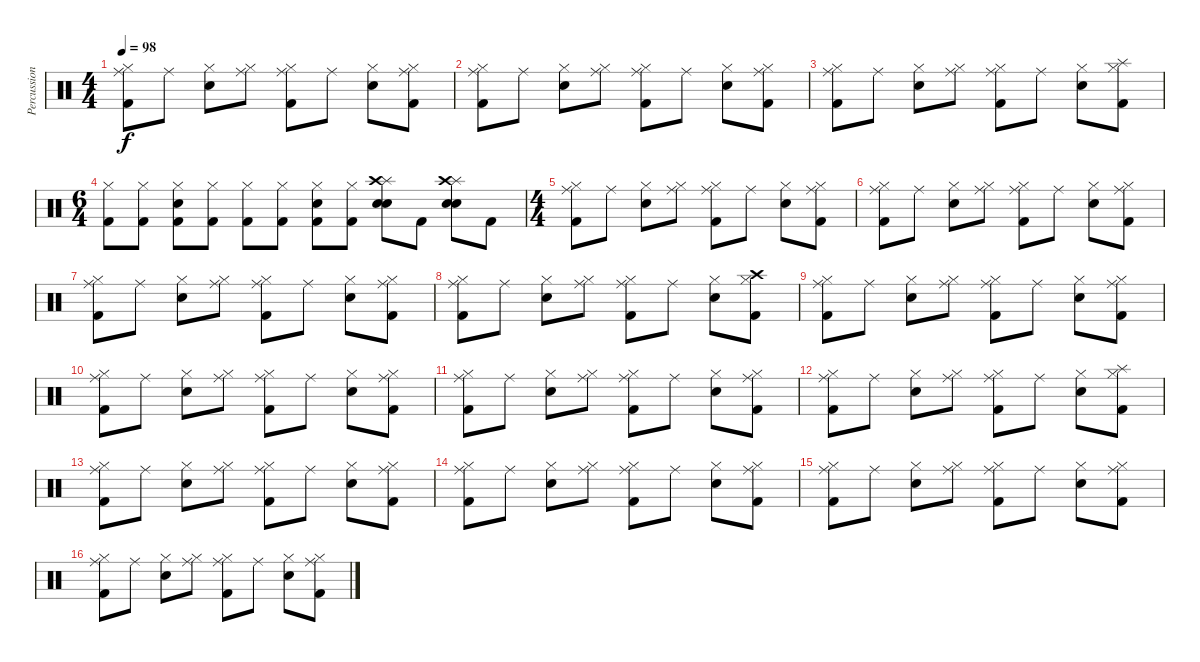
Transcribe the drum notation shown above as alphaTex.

\track ("Percussion" "Percussion") {instrument percussion}
\staff {score}
\articulation defaults
\ts (4 4)
\tempo 98
\clef neutral
\ks c
("Hi-Hat (closed)" "Kick (hit) 2" "Ride (middle)").8{dy f} "Ride (middle)".8 ("Hi-Hat (closed)" "Electric Snare (hit)").8 ("Hi-Hat (closed)" "Ride (middle)").8 ("Hi-Hat (closed)" "Kick (hit) 2" "Ride (middle)").8 "Ride (middle)".8 ("Hi-Hat (closed)" "Electric Snare (hit)").8 ("Hi-Hat (closed)" "Kick (hit) 2" "Ride (middle)").8 |
("Hi-Hat (closed)" "Kick (hit) 2" "Ride (middle)").8 "Ride (middle)".8 ("Hi-Hat (closed)" "Electric Snare (hit)").8 ("Hi-Hat (closed)" "Ride (middle)").8 ("Hi-Hat (closed)" "Kick (hit) 2" "Ride (middle)").8 "Ride (middle)".8 ("Hi-Hat (closed)" "Electric Snare (hit)").8 ("Hi-Hat (closed)" "Kick (hit) 2" "Ride (middle)").8 |
("Hi-Hat (closed)" "Kick (hit) 2" "Ride (middle)").8 "Ride (middle)".8 ("Hi-Hat (closed)" "Electric Snare (hit)").8 ("Hi-Hat (closed)" "Ride (middle)").8 ("Hi-Hat (closed)" "Kick (hit) 2" "Ride (middle)").8 "Ride (middle)".8 ("Hi-Hat (closed)" "Electric Snare (hit)").8 ("Hi-Hat (closed)" "Kick (hit) 2" "Splash (hit)").8 |
\ts (6 4)
("Hi-Hat (closed)" "Kick (hit) 2").8 ("Hi-Hat (closed)" "Kick (hit) 2").8 ("Hi-Hat (closed)" "Kick (hit) 2" "Electric Snare (hit)").8 ("Hi-Hat (closed)" "Kick (hit) 2").8 ("Hi-Hat (closed)" "Kick (hit) 2").8 ("Hi-Hat (closed)" "Kick (hit) 2").8 ("Hi-Hat (closed)" "Kick (hit) 2" "Electric Snare (hit)").8 ("Hi-Hat (closed)" "Kick (hit) 2").8 ("Splash (hit)" "Snare (hit) 2" "Electric Snare (hit)" "Crash high (hit)").8 "Kick (hit) 2".8 ("Splash (hit)" "Snare (hit) 2" "Electric Snare (hit)" "Crash high (hit)").8 "Kick (hit) 2".8 |
\ts (4 4)
("Hi-Hat (closed)" "Kick (hit) 2" "Ride (middle)").8 "Ride (middle)".8 ("Hi-Hat (closed)" "Electric Snare (hit)").8 ("Hi-Hat (closed)" "Ride (middle)").8 ("Hi-Hat (closed)" "Kick (hit) 2" "Ride (middle)").8 "Ride (middle)".8 ("Hi-Hat (closed)" "Electric Snare (hit)").8 ("Hi-Hat (closed)" "Kick (hit) 2" "Ride (middle)").8 |
("Hi-Hat (closed)" "Kick (hit) 2" "Ride (middle)").8 "Ride (middle)".8 ("Hi-Hat (closed)" "Electric Snare (hit)").8 ("Hi-Hat (closed)" "Ride (middle)").8 ("Hi-Hat (closed)" "Kick (hit) 2" "Ride (middle)").8 "Ride (middle)".8 ("Hi-Hat (closed)" "Electric Snare (hit)").8 ("Hi-Hat (closed)" "Kick (hit) 2" "Ride (middle)").8 |
("Hi-Hat (closed)" "Kick (hit) 2" "Ride (middle)").8 "Ride (middle)".8 ("Hi-Hat (closed)" "Electric Snare (hit)").8 ("Hi-Hat (closed)" "Ride (middle)").8 ("Hi-Hat (closed)" "Kick (hit) 2" "Ride (middle)").8 "Ride (middle)".8 ("Hi-Hat (closed)" "Electric Snare (hit)").8 ("Hi-Hat (closed)" "Kick (hit) 2" "Ride (middle)").8 |
("Hi-Hat (closed)" "Kick (hit) 2" "Ride (middle)").8 "Ride (middle)".8 ("Hi-Hat (closed)" "Electric Snare (hit)").8 ("Hi-Hat (closed)" "Ride (middle)").8 ("Hi-Hat (closed)" "Kick (hit) 2" "Ride (middle)").8 "Ride (middle)".8 ("Hi-Hat (closed)" "Electric Snare (hit)").8 ("Hi-Hat (closed)" "Kick (hit) 2" "Crash high (hit)").8 |
("Hi-Hat (closed)" "Kick (hit) 2" "Ride (middle)").8 "Ride (middle)".8 ("Hi-Hat (closed)" "Electric Snare (hit)").8 ("Hi-Hat (closed)" "Ride (middle)").8 ("Hi-Hat (closed)" "Kick (hit) 2" "Ride (middle)").8 "Ride (middle)".8 ("Hi-Hat (closed)" "Electric Snare (hit)").8 ("Hi-Hat (closed)" "Kick (hit) 2" "Ride (middle)").8 |
("Hi-Hat (closed)" "Kick (hit) 2" "Ride (middle)").8 "Ride (middle)".8 ("Hi-Hat (closed)" "Electric Snare (hit)").8 ("Hi-Hat (closed)" "Ride (middle)").8 ("Hi-Hat (closed)" "Kick (hit) 2" "Ride (middle)").8 "Ride (middle)".8 ("Hi-Hat (closed)" "Electric Snare (hit)").8 ("Hi-Hat (closed)" "Kick (hit) 2" "Ride (middle)").8 |
("Hi-Hat (closed)" "Kick (hit) 2" "Ride (middle)").8 "Ride (middle)".8 ("Hi-Hat (closed)" "Electric Snare (hit)").8 ("Hi-Hat (closed)" "Ride (middle)").8 ("Hi-Hat (closed)" "Kick (hit) 2" "Ride (middle)").8 "Ride (middle)".8 ("Hi-Hat (closed)" "Electric Snare (hit)").8 ("Hi-Hat (closed)" "Kick (hit) 2" "Ride (middle)").8 |
("Hi-Hat (closed)" "Kick (hit) 2" "Ride (middle)").8 "Ride (middle)".8 ("Hi-Hat (closed)" "Electric Snare (hit)").8 ("Hi-Hat (closed)" "Ride (middle)").8 ("Hi-Hat (closed)" "Kick (hit) 2" "Ride (middle)").8 "Ride (middle)".8 ("Hi-Hat (closed)" "Electric Snare (hit)").8 ("Hi-Hat (closed)" "Kick (hit) 2" "Splash (hit)").8 |
("Hi-Hat (closed)" "Kick (hit) 2" "Ride (middle)").8 "Ride (middle)".8 ("Hi-Hat (closed)" "Electric Snare (hit)").8 ("Hi-Hat (closed)" "Ride (middle)").8 ("Hi-Hat (closed)" "Kick (hit) 2" "Ride (middle)").8 "Ride (middle)".8 ("Hi-Hat (closed)" "Electric Snare (hit)").8 ("Hi-Hat (closed)" "Kick (hit) 2" "Ride (middle)").8 |
("Hi-Hat (closed)" "Kick (hit) 2" "Ride (middle)").8 "Ride (middle)".8 ("Hi-Hat (closed)" "Electric Snare (hit)").8 ("Hi-Hat (closed)" "Ride (middle)").8 ("Hi-Hat (closed)" "Kick (hit) 2" "Ride (middle)").8 "Ride (middle)".8 ("Hi-Hat (closed)" "Electric Snare (hit)").8 ("Hi-Hat (closed)" "Kick (hit) 2" "Ride (middle)").8 |
("Hi-Hat (closed)" "Kick (hit) 2" "Ride (middle)").8 "Ride (middle)".8 ("Hi-Hat (closed)" "Electric Snare (hit)").8 ("Hi-Hat (closed)" "Ride (middle)").8 ("Hi-Hat (closed)" "Kick (hit) 2" "Ride (middle)").8 "Ride (middle)".8 ("Hi-Hat (closed)" "Electric Snare (hit)").8 ("Hi-Hat (closed)" "Kick (hit) 2" "Ride (middle)").8 |
("Hi-Hat (closed)" "Kick (hit) 2" "Ride (middle)").8 "Ride (middle)".8 ("Hi-Hat (closed)" "Electric Snare (hit)").8 ("Hi-Hat (closed)" "Ride (middle)").8 ("Hi-Hat (closed)" "Kick (hit) 2" "Ride (middle)").8 "Ride (middle)".8 ("Hi-Hat (closed)" "Electric Snare (hit)").8 ("Hi-Hat (closed)" "Kick (hit) 2" "Ride (middle)").8
